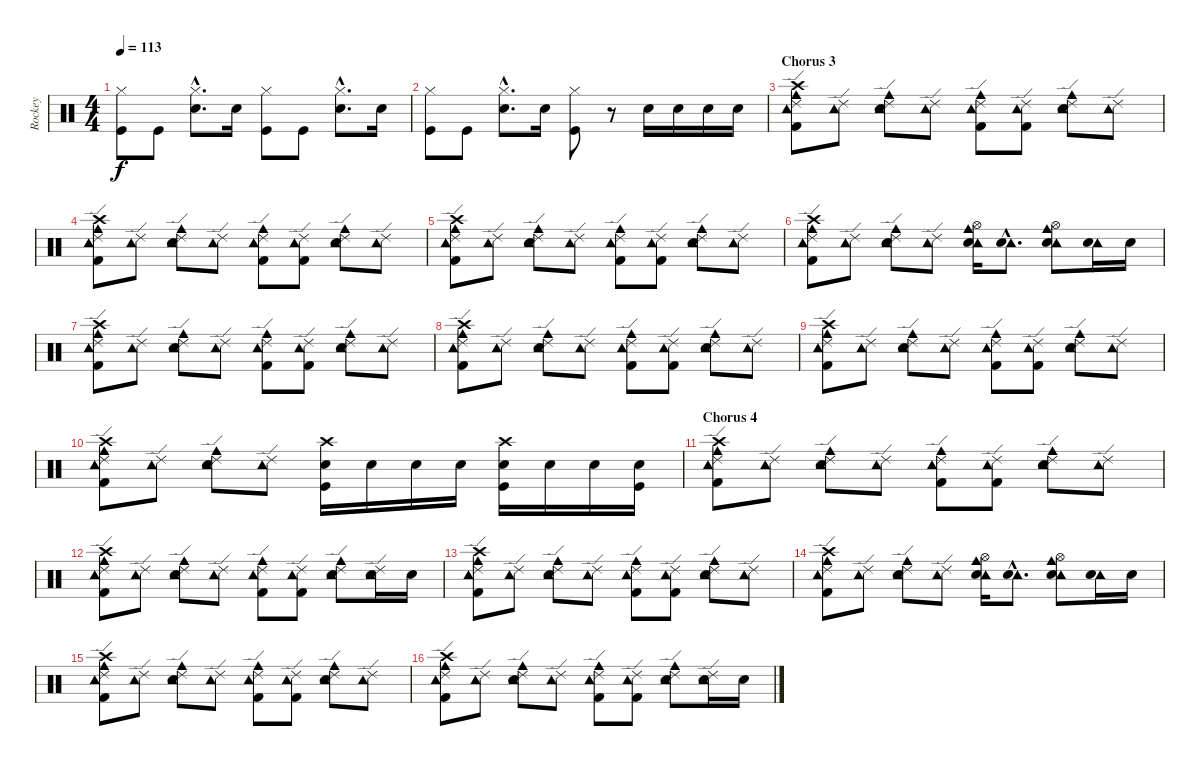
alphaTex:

\track ("Rockey" "Rockey") {instrument percussion}
\staff {score}
\articulation defaults
\ts (4 4)
\tempo 113
\clef neutral
\ks c
("Hi-Hat (closed)" "Kick (hit)").8{dy f} "Kick (hit)".8 ("Hi-Hat (closed)"{hac} "Snare (hit) 2"{hac}).8{d} "Snare (hit) 2".16 ("Hi-Hat (closed)" "Kick (hit)").8 "Kick (hit)".8 ("Hi-Hat (closed)"{hac} "Snare (hit) 2"{hac}).8{d} "Snare (hit) 2".16 |
("Hi-Hat (closed)" "Kick (hit)").8 "Kick (hit)".8 ("Hi-Hat (closed)"{hac} "Snare (hit) 2"{hac}).8{d} "Snare (hit) 2".16 ("Hi-Hat (closed)" "Kick (hit)").8 r.8 "Snare (hit) 2".16 "Snare (hit) 2".16 "Snare (hit) 2".16 "Snare (hit) 2".16 |
\section ("" "Chorus 3")
("Ride (edge) 2" "Crash high (hit)" "Cowbell medium (hit)" "Kick (hit) 2" "Tambourine (hit)").8 ("Ride (edge) 2" "Tambourine (hit)").8 ("Ride (edge) 2" "Cowbell medium (hit)" "Snare (hit) 2" "Tambourine (hit)").8 ("Ride (edge) 2" "Tambourine (hit)").8 ("Ride (edge) 2" "Cowbell medium (hit)" "Kick (hit) 2" "Tambourine (hit)").8 ("Ride (edge) 2" "Kick (hit) 2" "Tambourine (hit)").8 ("Ride (edge) 2" "Cowbell medium (hit)" "Snare (hit) 2" "Tambourine (hit)").8 ("Ride (edge) 2" "Tambourine (hit)").8 |
("Ride (edge) 2" "Crash high (hit)" "Cowbell medium (hit)" "Kick (hit) 2" "Tambourine (hit)").8 ("Ride (edge) 2" "Tambourine (hit)").8 ("Ride (edge) 2" "Cowbell medium (hit)" "Snare (hit) 2" "Tambourine (hit)").8 ("Ride (edge) 2" "Tambourine (hit)").8 ("Ride (edge) 2" "Cowbell medium (hit)" "Kick (hit) 2" "Tambourine (hit)").8 ("Ride (edge) 2" "Kick (hit) 2" "Tambourine (hit)").8 ("Ride (edge) 2" "Cowbell medium (hit)" "Snare (hit) 2" "Tambourine (hit)").8 ("Ride (edge) 2" "Tambourine (hit)").8 |
("Ride (edge) 2" "Crash high (hit)" "Cowbell medium (hit)" "Kick (hit) 2" "Tambourine (hit)").8 ("Ride (edge) 2" "Tambourine (hit)").8 ("Ride (edge) 2" "Cowbell medium (hit)" "Snare (hit) 2" "Tambourine (hit)").8 ("Ride (edge) 2" "Tambourine (hit)").8 ("Ride (edge) 2" "Cowbell medium (hit)" "Kick (hit) 2" "Tambourine (hit)").8 ("Ride (edge) 2" "Kick (hit) 2" "Tambourine (hit)").8 ("Ride (edge) 2" "Cowbell medium (hit)" "Snare (hit) 2" "Tambourine (hit)").8 ("Ride (edge) 2" "Tambourine (hit)").8 |
("Ride (edge) 2" "Crash high (hit)" "Cowbell medium (hit)" "Kick (hit) 2" "Tambourine (hit)").8 ("Ride (edge) 2" "Tambourine (hit)").8 ("Ride (edge) 2" "Cowbell medium (hit)" "Snare (hit) 2" "Tambourine (hit)").8 ("Ride (edge) 2" "Tambourine (hit)").8 ("Hi-Hat (open)" "Tambourine (hit)" "Cowbell medium (hit)" "Snare (hit) 2").16 ("Tambourine (hit)"{hac} "Snare (hit) 2"{hac}).8{d} ("Hi-Hat (open)" "Tambourine (hit)" "Cowbell medium (hit)" "Snare (hit) 2").8 ("Tambourine (hit)" "Snare (hit) 2").16 "Snare (hit) 2".16 |
("Ride (edge) 2" "Crash high (hit)" "Cowbell medium (hit)" "Kick (hit) 2" "Tambourine (hit)").8 ("Ride (edge) 2" "Tambourine (hit)").8 ("Ride (edge) 2" "Cowbell medium (hit)" "Snare (hit) 2" "Tambourine (hit)").8 ("Ride (edge) 2" "Tambourine (hit)").8 ("Ride (edge) 2" "Cowbell medium (hit)" "Kick (hit) 2" "Tambourine (hit)").8 ("Ride (edge) 2" "Kick (hit) 2" "Tambourine (hit)").8 ("Ride (edge) 2" "Cowbell medium (hit)" "Snare (hit) 2" "Tambourine (hit)").8 ("Ride (edge) 2" "Tambourine (hit)").8 |
("Ride (edge) 2" "Crash high (hit)" "Cowbell medium (hit)" "Kick (hit) 2" "Tambourine (hit)").8 ("Ride (edge) 2" "Tambourine (hit)").8 ("Ride (edge) 2" "Cowbell medium (hit)" "Snare (hit) 2" "Tambourine (hit)").8 ("Ride (edge) 2" "Tambourine (hit)").8 ("Ride (edge) 2" "Cowbell medium (hit)" "Kick (hit) 2" "Tambourine (hit)").8 ("Ride (edge) 2" "Kick (hit) 2" "Tambourine (hit)").8 ("Ride (edge) 2" "Cowbell medium (hit)" "Snare (hit) 2" "Tambourine (hit)").8 ("Ride (edge) 2" "Tambourine (hit)").8 |
("Ride (edge) 2" "Crash high (hit)" "Cowbell medium (hit)" "Kick (hit) 2" "Tambourine (hit)").8 ("Ride (edge) 2" "Tambourine (hit)").8 ("Ride (edge) 2" "Cowbell medium (hit)" "Snare (hit) 2" "Tambourine (hit)").8 ("Ride (edge) 2" "Tambourine (hit)").8 ("Ride (edge) 2" "Cowbell medium (hit)" "Kick (hit) 2" "Tambourine (hit)").8 ("Ride (edge) 2" "Kick (hit) 2" "Tambourine (hit)").8 ("Ride (edge) 2" "Cowbell medium (hit)" "Snare (hit) 2" "Tambourine (hit)").8 ("Ride (edge) 2" "Tambourine (hit)").8 |
("Ride (edge) 2" "Crash high (hit)" "Cowbell medium (hit)" "Kick (hit) 2" "Tambourine (hit)").8 ("Ride (edge) 2" "Tambourine (hit)").8 ("Ride (edge) 2" "Cowbell medium (hit)" "Snare (hit) 2" "Tambourine (hit)").8 ("Ride (edge) 2" "Tambourine (hit)").8 ("Crash high (hit)" "Snare (hit) 2" "Kick (hit)").16 "Snare (hit) 2".16 "Snare (hit) 2".16 "Snare (hit) 2".16 ("Crash high (hit)" "Snare (hit) 2" "Kick (hit)").16 "Snare (hit) 2".16 "Snare (hit) 2".16 ("Snare (hit) 2" "Kick (hit)").16 |
\section ("" "Chorus 4")
("Ride (edge) 2" "Crash high (hit)" "Cowbell medium (hit)" "Kick (hit) 2" "Tambourine (hit)").8 ("Ride (edge) 2" "Tambourine (hit)").8 ("Ride (edge) 2" "Cowbell medium (hit)" "Snare (hit) 2" "Tambourine (hit)").8 ("Ride (edge) 2" "Tambourine (hit)").8 ("Ride (edge) 2" "Cowbell medium (hit)" "Kick (hit) 2" "Tambourine (hit)").8 ("Ride (edge) 2" "Kick (hit) 2" "Tambourine (hit)").8 ("Ride (edge) 2" "Cowbell medium (hit)" "Snare (hit) 2" "Tambourine (hit)").8 ("Ride (edge) 2" "Tambourine (hit)").8 |
("Ride (edge) 2" "Crash high (hit)" "Cowbell medium (hit)" "Kick (hit) 2" "Tambourine (hit)").8 ("Ride (edge) 2" "Tambourine (hit)").8 ("Ride (edge) 2" "Cowbell medium (hit)" "Snare (hit) 2" "Tambourine (hit)").8 ("Ride (edge) 2" "Tambourine (hit)").8 ("Ride (edge) 2" "Cowbell medium (hit)" "Kick (hit) 2" "Tambourine (hit)").8 ("Ride (edge) 2" "Kick (hit) 2" "Tambourine (hit)").8 ("Ride (edge) 2" "Cowbell medium (hit)" "Snare (hit) 2" "Tambourine (hit)").8 ("Ride (edge) 2" "Snare (hit) 2" "Tambourine (hit)").16 "Snare (hit) 2".16 |
("Ride (edge) 2" "Crash high (hit)" "Cowbell medium (hit)" "Kick (hit) 2" "Tambourine (hit)").8 ("Ride (edge) 2" "Tambourine (hit)").8 ("Ride (edge) 2" "Cowbell medium (hit)" "Snare (hit) 2" "Tambourine (hit)").8 ("Ride (edge) 2" "Tambourine (hit)").8 ("Ride (edge) 2" "Cowbell medium (hit)" "Kick (hit) 2" "Tambourine (hit)").8 ("Ride (edge) 2" "Kick (hit) 2" "Tambourine (hit)").8 ("Ride (edge) 2" "Cowbell medium (hit)" "Snare (hit) 2" "Tambourine (hit)").8 ("Ride (edge) 2" "Tambourine (hit)").8 |
("Ride (edge) 2" "Crash high (hit)" "Cowbell medium (hit)" "Kick (hit) 2" "Tambourine (hit)").8 ("Ride (edge) 2" "Tambourine (hit)").8 ("Ride (edge) 2" "Cowbell medium (hit)" "Snare (hit) 2" "Tambourine (hit)").8 ("Ride (edge) 2" "Tambourine (hit)").8 ("Hi-Hat (open)" "Tambourine (hit)" "Cowbell medium (hit)" "Snare (hit) 2").16 ("Tambourine (hit)"{hac} "Snare (hit) 2"{hac}).8{d} ("Hi-Hat (open)" "Tambourine (hit)" "Cowbell medium (hit)" "Snare (hit) 2").8 ("Tambourine (hit)" "Snare (hit) 2").16 "Snare (hit) 2".16 |
("Ride (edge) 2" "Crash high (hit)" "Cowbell medium (hit)" "Kick (hit) 2" "Tambourine (hit)").8 ("Ride (edge) 2" "Tambourine (hit)").8 ("Ride (edge) 2" "Cowbell medium (hit)" "Snare (hit) 2" "Tambourine (hit)").8 ("Ride (edge) 2" "Tambourine (hit)").8 ("Ride (edge) 2" "Cowbell medium (hit)" "Kick (hit) 2" "Tambourine (hit)").8 ("Ride (edge) 2" "Kick (hit) 2" "Tambourine (hit)").8 ("Ride (edge) 2" "Cowbell medium (hit)" "Snare (hit) 2" "Tambourine (hit)").8 ("Ride (edge) 2" "Tambourine (hit)").8 |
("Ride (edge) 2" "Crash high (hit)" "Cowbell medium (hit)" "Kick (hit) 2" "Tambourine (hit)").8 ("Ride (edge) 2" "Tambourine (hit)").8 ("Ride (edge) 2" "Cowbell medium (hit)" "Snare (hit) 2" "Tambourine (hit)").8 ("Ride (edge) 2" "Tambourine (hit)").8 ("Ride (edge) 2" "Cowbell medium (hit)" "Kick (hit) 2" "Tambourine (hit)").8 ("Ride (edge) 2" "Kick (hit) 2" "Tambourine (hit)").8 ("Ride (edge) 2" "Cowbell medium (hit)" "Snare (hit) 2" "Tambourine (hit)").8 ("Ride (edge) 2" "Snare (hit) 2" "Tambourine (hit)").16 "Snare (hit) 2".16
